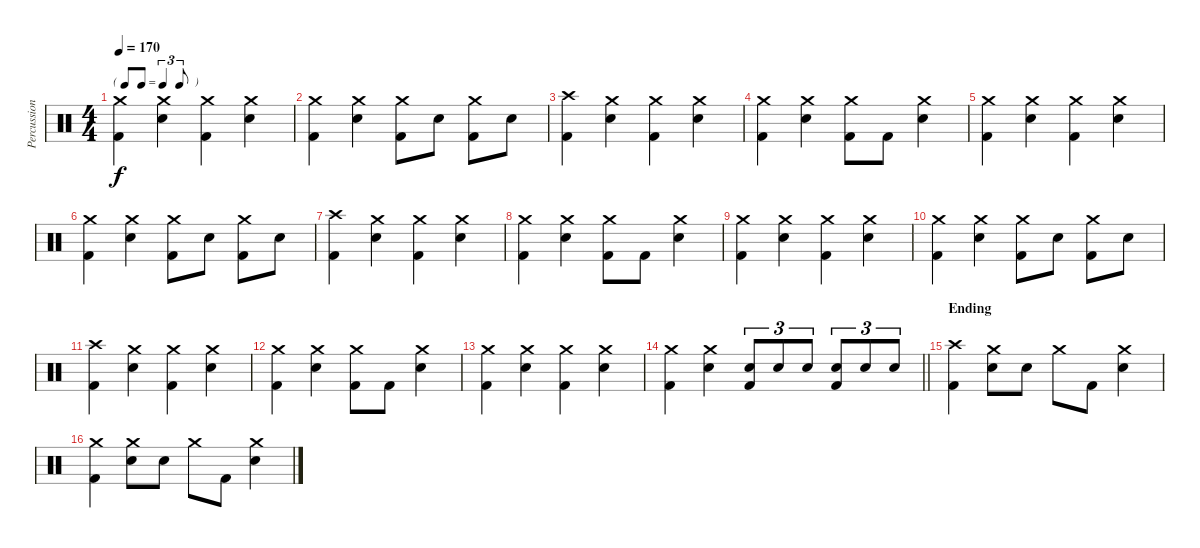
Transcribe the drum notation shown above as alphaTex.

\track ("Percussion" "Percussion") {instrument percussion}
\staff {score}
\articulation defaults
\ts (4 4)
\tf triplet8th
\tempo 170
\clef neutral
\ks c
("Crash medium (hit)" "Kick (hit) 2").4{dy f} ("Crash medium (hit)" "Electric Snare (hit)").4 ("Crash medium (hit)" "Kick (hit) 2").4 ("Crash medium (hit)" "Electric Snare (hit)").4 |
("Crash medium (hit)" "Kick (hit) 2").4 ("Crash medium (hit)" "Electric Snare (hit)").4 ("Crash medium (hit)" "Kick (hit) 2").8 "Electric Snare (hit)".8 ("Crash medium (hit)" "Kick (hit) 2").8 "Electric Snare (hit)".8 |
("Crash high (hit)" "Kick (hit) 2").4 ("Crash medium (hit)" "Electric Snare (hit)").4 ("Crash medium (hit)" "Kick (hit) 2").4 ("Crash medium (hit)" "Electric Snare (hit)").4 |
("Crash medium (hit)" "Kick (hit) 2").4 ("Crash medium (hit)" "Electric Snare (hit)").4 ("Crash medium (hit)" "Kick (hit) 2").8 "Kick (hit) 2".8 ("Crash medium (hit)" "Electric Snare (hit)").4 |
("Crash medium (hit)" "Kick (hit) 2").4 ("Crash medium (hit)" "Electric Snare (hit)").4 ("Crash medium (hit)" "Kick (hit) 2").4 ("Crash medium (hit)" "Electric Snare (hit)").4 |
("Crash medium (hit)" "Kick (hit) 2").4 ("Crash medium (hit)" "Electric Snare (hit)").4 ("Crash medium (hit)" "Kick (hit) 2").8 "Electric Snare (hit)".8 ("Crash medium (hit)" "Kick (hit) 2").8 "Electric Snare (hit)".8 |
("Crash high (hit)" "Kick (hit) 2").4 ("Crash medium (hit)" "Electric Snare (hit)").4 ("Crash medium (hit)" "Kick (hit) 2").4 ("Crash medium (hit)" "Electric Snare (hit)").4 |
("Crash medium (hit)" "Kick (hit) 2").4 ("Crash medium (hit)" "Electric Snare (hit)").4 ("Crash medium (hit)" "Kick (hit) 2").8 "Kick (hit) 2".8 ("Crash medium (hit)" "Electric Snare (hit)").4 |
("Crash medium (hit)" "Kick (hit) 2").4 ("Crash medium (hit)" "Electric Snare (hit)").4 ("Crash medium (hit)" "Kick (hit) 2").4 ("Crash medium (hit)" "Electric Snare (hit)").4 |
("Crash medium (hit)" "Kick (hit) 2").4 ("Crash medium (hit)" "Electric Snare (hit)").4 ("Crash medium (hit)" "Kick (hit) 2").8 "Electric Snare (hit)".8 ("Crash medium (hit)" "Kick (hit) 2").8 "Electric Snare (hit)".8 |
("Crash high (hit)" "Kick (hit) 2").4 ("Crash medium (hit)" "Electric Snare (hit)").4 ("Crash medium (hit)" "Kick (hit) 2").4 ("Crash medium (hit)" "Electric Snare (hit)").4 |
("Crash medium (hit)" "Kick (hit) 2").4 ("Crash medium (hit)" "Electric Snare (hit)").4 ("Crash medium (hit)" "Kick (hit) 2").8 "Kick (hit) 2".8 ("Crash medium (hit)" "Electric Snare (hit)").4 |
("Crash medium (hit)" "Kick (hit) 2").4 ("Crash medium (hit)" "Electric Snare (hit)").4 ("Crash medium (hit)" "Kick (hit) 2").4 ("Crash medium (hit)" "Electric Snare (hit)").4 |
\barLineRight lightlight
("Crash medium (hit)" "Kick (hit) 2").4 ("Crash medium (hit)" "Electric Snare (hit)").4 ("Electric Snare (hit)" "Kick (hit) 2").8{tu (3 2)} "Electric Snare (hit)".8{tu (3 2)} "Electric Snare (hit)".8{tu (3 2)} ("Electric Snare (hit)" "Kick (hit) 2").8{tu (3 2)} "Electric Snare (hit)".8{tu (3 2)} "Electric Snare (hit)".8{tu (3 2)} |
\section ("" "Ending")
("Crash high (hit)" "Kick (hit) 2").4 ("Crash medium (hit)" "Electric Snare (hit)").8 "Electric Snare (hit)".8 "Crash medium (hit)".8 "Kick (hit) 2".8 ("Crash medium (hit)" "Electric Snare (hit)").4 |
("Crash medium (hit)" "Kick (hit) 2").4 ("Crash medium (hit)" "Electric Snare (hit)").8 "Electric Snare (hit)".8 "Crash medium (hit)".8 "Kick (hit) 2".8 ("Crash medium (hit)" "Electric Snare (hit)").4
